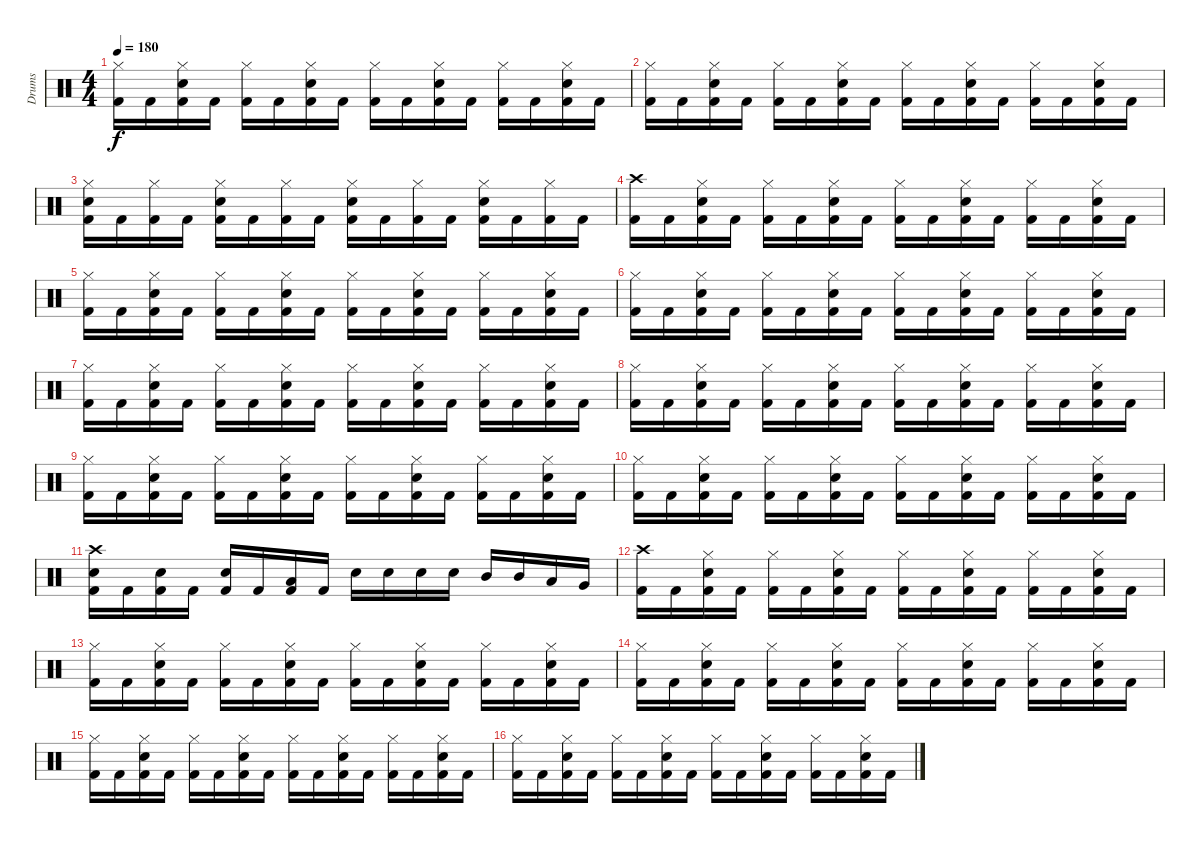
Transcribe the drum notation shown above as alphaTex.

\track ("Drums " "Drums ") {instrument percussion}
\staff {score}
\articulation defaults
\ts (4 4)
\tempo 180
\clef neutral
\ks c
("Kick (hit) 2" "Hi-Hat (closed)").16{dy f} "Kick (hit) 2".16 ("Kick (hit) 2" "Hi-Hat (closed)" "Electric Snare (hit)").16 "Kick (hit) 2".16 ("Kick (hit) 2" "Hi-Hat (closed)").16 "Kick (hit) 2".16 ("Kick (hit) 2" "Hi-Hat (closed)" "Electric Snare (hit)").16 "Kick (hit) 2".16 ("Kick (hit) 2" "Hi-Hat (closed)").16 "Kick (hit) 2".16 ("Kick (hit) 2" "Hi-Hat (closed)" "Electric Snare (hit)").16 "Kick (hit) 2".16 ("Kick (hit) 2" "Hi-Hat (closed)").16 "Kick (hit) 2".16 ("Kick (hit) 2" "Hi-Hat (closed)" "Electric Snare (hit)").16 "Kick (hit) 2".16 |
("Kick (hit) 2" "Hi-Hat (closed)").16 "Kick (hit) 2".16 ("Kick (hit) 2" "Hi-Hat (closed)" "Electric Snare (hit)").16 "Kick (hit) 2".16 ("Kick (hit) 2" "Hi-Hat (closed)").16 "Kick (hit) 2".16 ("Kick (hit) 2" "Hi-Hat (closed)" "Electric Snare (hit)").16 "Kick (hit) 2".16 ("Kick (hit) 2" "Hi-Hat (closed)").16 "Kick (hit) 2".16 ("Kick (hit) 2" "Hi-Hat (closed)" "Electric Snare (hit)").16 "Kick (hit) 2".16 ("Kick (hit) 2" "Hi-Hat (closed)").16 "Kick (hit) 2".16 ("Kick (hit) 2" "Hi-Hat (closed)" "Electric Snare (hit)").16 "Kick (hit) 2".16 |
("Kick (hit) 2" "Hi-Hat (closed)" "Electric Snare (hit)").16 "Kick (hit) 2".16 ("Kick (hit) 2" "Hi-Hat (closed)").16 "Kick (hit) 2".16 ("Kick (hit) 2" "Hi-Hat (closed)" "Electric Snare (hit)").16 "Kick (hit) 2".16 ("Kick (hit) 2" "Hi-Hat (closed)").16 "Kick (hit) 2".16 ("Kick (hit) 2" "Hi-Hat (closed)" "Electric Snare (hit)").16 "Kick (hit) 2".16 ("Kick (hit) 2" "Hi-Hat (closed)").16 "Kick (hit) 2".16 ("Kick (hit) 2" "Hi-Hat (closed)" "Electric Snare (hit)").16 "Kick (hit) 2".16 ("Kick (hit) 2" "Hi-Hat (closed)").16 "Kick (hit) 2".16 |
("Kick (hit) 2" "Crash high (hit)").16 "Kick (hit) 2".16 ("Kick (hit) 2" "Hi-Hat (closed)" "Electric Snare (hit)").16 "Kick (hit) 2".16 ("Kick (hit) 2" "Hi-Hat (closed)").16 "Kick (hit) 2".16 ("Kick (hit) 2" "Hi-Hat (closed)" "Electric Snare (hit)").16 "Kick (hit) 2".16 ("Kick (hit) 2" "Hi-Hat (closed)").16 "Kick (hit) 2".16 ("Kick (hit) 2" "Hi-Hat (closed)" "Electric Snare (hit)").16 "Kick (hit) 2".16 ("Kick (hit) 2" "Hi-Hat (closed)").16 "Kick (hit) 2".16 ("Kick (hit) 2" "Hi-Hat (closed)" "Electric Snare (hit)").16 "Kick (hit) 2".16 |
("Kick (hit) 2" "Hi-Hat (closed)").16 "Kick (hit) 2".16 ("Kick (hit) 2" "Hi-Hat (closed)" "Electric Snare (hit)").16 "Kick (hit) 2".16 ("Kick (hit) 2" "Hi-Hat (closed)").16 "Kick (hit) 2".16 ("Kick (hit) 2" "Hi-Hat (closed)" "Electric Snare (hit)").16 "Kick (hit) 2".16 ("Kick (hit) 2" "Hi-Hat (closed)").16 "Kick (hit) 2".16 ("Kick (hit) 2" "Hi-Hat (closed)" "Electric Snare (hit)").16 "Kick (hit) 2".16 ("Kick (hit) 2" "Hi-Hat (closed)").16 "Kick (hit) 2".16 ("Kick (hit) 2" "Hi-Hat (closed)" "Electric Snare (hit)").16 "Kick (hit) 2".16 |
("Kick (hit) 2" "Hi-Hat (closed)").16 "Kick (hit) 2".16 ("Kick (hit) 2" "Hi-Hat (closed)" "Electric Snare (hit)").16 "Kick (hit) 2".16 ("Kick (hit) 2" "Hi-Hat (closed)").16 "Kick (hit) 2".16 ("Kick (hit) 2" "Hi-Hat (closed)" "Electric Snare (hit)").16 "Kick (hit) 2".16 ("Kick (hit) 2" "Hi-Hat (closed)").16 "Kick (hit) 2".16 ("Kick (hit) 2" "Hi-Hat (closed)" "Electric Snare (hit)").16 "Kick (hit) 2".16 ("Kick (hit) 2" "Hi-Hat (closed)").16 "Kick (hit) 2".16 ("Kick (hit) 2" "Hi-Hat (closed)" "Electric Snare (hit)").16 "Kick (hit) 2".16 |
("Kick (hit) 2" "Hi-Hat (closed)").16 "Kick (hit) 2".16 ("Kick (hit) 2" "Hi-Hat (closed)" "Electric Snare (hit)").16 "Kick (hit) 2".16 ("Kick (hit) 2" "Hi-Hat (closed)").16 "Kick (hit) 2".16 ("Kick (hit) 2" "Hi-Hat (closed)" "Electric Snare (hit)").16 "Kick (hit) 2".16 ("Kick (hit) 2" "Hi-Hat (closed)").16 "Kick (hit) 2".16 ("Kick (hit) 2" "Hi-Hat (closed)" "Electric Snare (hit)").16 "Kick (hit) 2".16 ("Kick (hit) 2" "Hi-Hat (closed)").16 "Kick (hit) 2".16 ("Kick (hit) 2" "Hi-Hat (closed)" "Electric Snare (hit)").16 "Kick (hit) 2".16 |
("Kick (hit) 2" "Hi-Hat (closed)").16 "Kick (hit) 2".16 ("Kick (hit) 2" "Hi-Hat (closed)" "Electric Snare (hit)").16 "Kick (hit) 2".16 ("Kick (hit) 2" "Hi-Hat (closed)").16 "Kick (hit) 2".16 ("Kick (hit) 2" "Hi-Hat (closed)" "Electric Snare (hit)").16 "Kick (hit) 2".16 ("Kick (hit) 2" "Hi-Hat (closed)").16 "Kick (hit) 2".16 ("Kick (hit) 2" "Hi-Hat (closed)" "Electric Snare (hit)").16 "Kick (hit) 2".16 ("Kick (hit) 2" "Hi-Hat (closed)").16 "Kick (hit) 2".16 ("Kick (hit) 2" "Hi-Hat (closed)" "Electric Snare (hit)").16 "Kick (hit) 2".16 |
("Kick (hit) 2" "Hi-Hat (closed)").16 "Kick (hit) 2".16 ("Kick (hit) 2" "Hi-Hat (closed)" "Electric Snare (hit)").16 "Kick (hit) 2".16 ("Kick (hit) 2" "Hi-Hat (closed)").16 "Kick (hit) 2".16 ("Kick (hit) 2" "Hi-Hat (closed)" "Electric Snare (hit)").16 "Kick (hit) 2".16 ("Kick (hit) 2" "Hi-Hat (closed)").16 "Kick (hit) 2".16 ("Kick (hit) 2" "Hi-Hat (closed)" "Electric Snare (hit)").16 "Kick (hit) 2".16 ("Kick (hit) 2" "Hi-Hat (closed)").16 "Kick (hit) 2".16 ("Kick (hit) 2" "Hi-Hat (closed)" "Electric Snare (hit)").16 "Kick (hit) 2".16 |
("Kick (hit) 2" "Hi-Hat (closed)").16 "Kick (hit) 2".16 ("Kick (hit) 2" "Hi-Hat (closed)" "Electric Snare (hit)").16 "Kick (hit) 2".16 ("Kick (hit) 2" "Hi-Hat (closed)").16 "Kick (hit) 2".16 ("Kick (hit) 2" "Hi-Hat (closed)" "Electric Snare (hit)").16 "Kick (hit) 2".16 ("Kick (hit) 2" "Hi-Hat (closed)").16 "Kick (hit) 2".16 ("Kick (hit) 2" "Hi-Hat (closed)" "Electric Snare (hit)").16 "Kick (hit) 2".16 ("Kick (hit) 2" "Hi-Hat (closed)").16 "Kick (hit) 2".16 ("Kick (hit) 2" "Hi-Hat (closed)" "Electric Snare (hit)").16 "Kick (hit) 2".16 |
("Kick (hit) 2" "Crash high (hit)" "Electric Snare (hit)").16 "Kick (hit) 2".16 ("Kick (hit) 2" "Electric Snare (hit)").16 "Kick (hit) 2".16 ("Kick (hit) 2" "Electric Snare (hit)").16 "Kick (hit) 2".16 ("Kick (hit) 2" "Low Tom (hit)").16 "Kick (hit) 2".16 "Electric Snare (hit)".16 "Electric Snare (hit)".16 "Electric Snare (hit)".16 "Electric Snare (hit)".16 "Mid Tom (hit)".16 "Mid Tom (hit)".16 "Low Tom (hit)".16 "Very Low Tom (hit)".16 |
("Kick (hit) 2" "Crash high (hit)").16 "Kick (hit) 2".16 ("Kick (hit) 2" "Hi-Hat (closed)" "Electric Snare (hit)").16 "Kick (hit) 2".16 ("Kick (hit) 2" "Hi-Hat (closed)").16 "Kick (hit) 2".16 ("Kick (hit) 2" "Hi-Hat (closed)" "Electric Snare (hit)").16 "Kick (hit) 2".16 ("Kick (hit) 2" "Hi-Hat (closed)").16 "Kick (hit) 2".16 ("Kick (hit) 2" "Hi-Hat (closed)" "Electric Snare (hit)").16 "Kick (hit) 2".16 ("Kick (hit) 2" "Hi-Hat (closed)").16 "Kick (hit) 2".16 ("Kick (hit) 2" "Hi-Hat (closed)" "Electric Snare (hit)").16 "Kick (hit) 2".16 |
("Kick (hit) 2" "Hi-Hat (closed)").16 "Kick (hit) 2".16 ("Kick (hit) 2" "Hi-Hat (closed)" "Electric Snare (hit)").16 "Kick (hit) 2".16 ("Kick (hit) 2" "Hi-Hat (closed)").16 "Kick (hit) 2".16 ("Kick (hit) 2" "Hi-Hat (closed)" "Electric Snare (hit)").16 "Kick (hit) 2".16 ("Kick (hit) 2" "Hi-Hat (closed)").16 "Kick (hit) 2".16 ("Kick (hit) 2" "Hi-Hat (closed)" "Electric Snare (hit)").16 "Kick (hit) 2".16 ("Kick (hit) 2" "Hi-Hat (closed)").16 "Kick (hit) 2".16 ("Kick (hit) 2" "Hi-Hat (closed)" "Electric Snare (hit)").16 "Kick (hit) 2".16 |
("Kick (hit) 2" "Hi-Hat (closed)").16 "Kick (hit) 2".16 ("Kick (hit) 2" "Hi-Hat (closed)" "Electric Snare (hit)").16 "Kick (hit) 2".16 ("Kick (hit) 2" "Hi-Hat (closed)").16 "Kick (hit) 2".16 ("Kick (hit) 2" "Hi-Hat (closed)" "Electric Snare (hit)").16 "Kick (hit) 2".16 ("Kick (hit) 2" "Hi-Hat (closed)").16 "Kick (hit) 2".16 ("Kick (hit) 2" "Hi-Hat (closed)" "Electric Snare (hit)").16 "Kick (hit) 2".16 ("Kick (hit) 2" "Hi-Hat (closed)").16 "Kick (hit) 2".16 ("Kick (hit) 2" "Hi-Hat (closed)" "Electric Snare (hit)").16 "Kick (hit) 2".16 |
("Kick (hit) 2" "Hi-Hat (closed)").16 "Kick (hit) 2".16 ("Kick (hit) 2" "Hi-Hat (closed)" "Electric Snare (hit)").16 "Kick (hit) 2".16 ("Kick (hit) 2" "Hi-Hat (closed)").16 "Kick (hit) 2".16 ("Kick (hit) 2" "Hi-Hat (closed)" "Electric Snare (hit)").16 "Kick (hit) 2".16 ("Kick (hit) 2" "Hi-Hat (closed)").16 "Kick (hit) 2".16 ("Kick (hit) 2" "Hi-Hat (closed)" "Electric Snare (hit)").16 "Kick (hit) 2".16 ("Kick (hit) 2" "Hi-Hat (closed)").16 "Kick (hit) 2".16 ("Kick (hit) 2" "Hi-Hat (closed)" "Electric Snare (hit)").16 "Kick (hit) 2".16 |
("Kick (hit) 2" "Hi-Hat (closed)").16 "Kick (hit) 2".16 ("Kick (hit) 2" "Hi-Hat (closed)" "Electric Snare (hit)").16 "Kick (hit) 2".16 ("Kick (hit) 2" "Hi-Hat (closed)").16 "Kick (hit) 2".16 ("Kick (hit) 2" "Hi-Hat (closed)" "Electric Snare (hit)").16 "Kick (hit) 2".16 ("Kick (hit) 2" "Hi-Hat (closed)").16 "Kick (hit) 2".16 ("Kick (hit) 2" "Hi-Hat (closed)" "Electric Snare (hit)").16 "Kick (hit) 2".16 ("Kick (hit) 2" "Hi-Hat (closed)").16 "Kick (hit) 2".16 ("Kick (hit) 2" "Hi-Hat (closed)" "Electric Snare (hit)").16 "Kick (hit) 2".16
